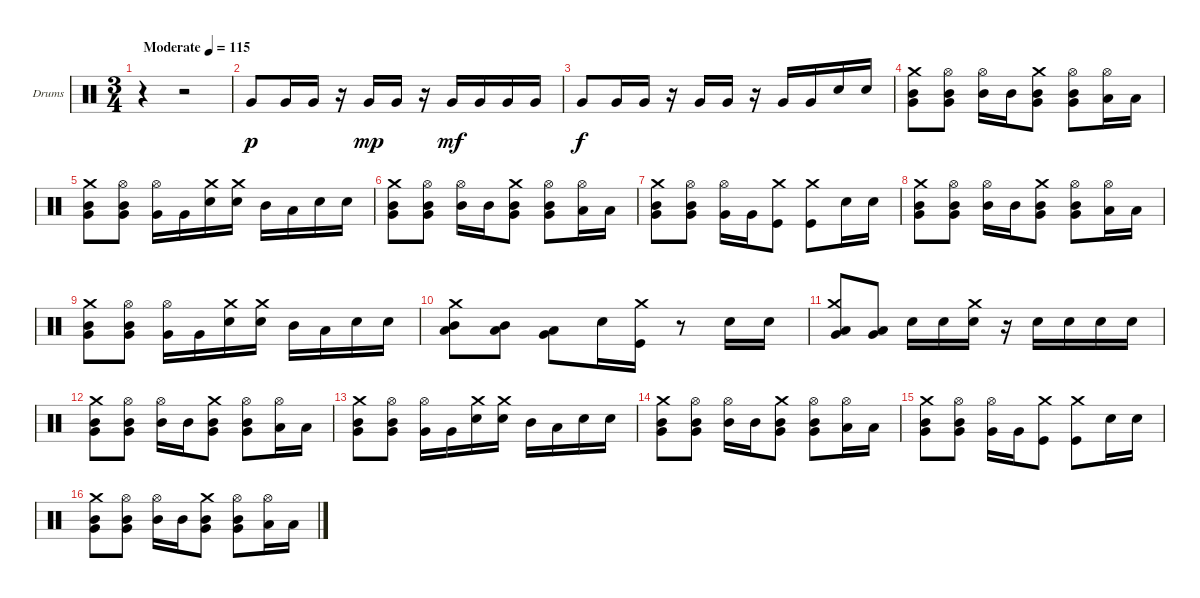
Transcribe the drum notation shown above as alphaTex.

\bracketExtendMode groupsimilarinstruments
\firstSystemTrackNameOrientation horizontal
\otherSystemsTrackNameOrientation horizontal
\track ("Drumkit" "Drums") {instrument percussion}
\staff {score}
\articulation defaults
\ts (3 4)
\beaming (8 2 2 2)
\tempo (115 "Moderate")
\clef neutral
\ks c
r.4{dy p} r.2 |
"Very Low Tom (hit)".8 "Very Low Tom (hit)".16 "Very Low Tom (hit)".16 r.16 "Very Low Tom (hit)".16{dy mp} "Very Low Tom (hit)".16 r.16 "Very Low Tom (hit)".16{dy mf} "Very Low Tom (hit)".16 "Very Low Tom (hit)".16 "Very Low Tom (hit)".16 |
"Very Low Tom (hit)".8{dy f} "Very Low Tom (hit)".16 "Very Low Tom (hit)".16 r.16 "Very Low Tom (hit)".16 "Very Low Tom (hit)".16 r.16 "Very Low Tom (hit)".16 "Very Low Tom (hit)".16 "Snare (hit) 2".16 "Snare (hit) 2".16 |
("Crash medium (hit)" "Mid Tom (hit)" "Very Low Tom (hit)").8 ("Hi-Hat (open)" "Mid Tom (hit)" "Very Low Tom (hit)").8 ("Hi-Hat (open)" "Mid Tom (hit)").16 "Mid Tom (hit)".16 ("Crash medium (hit)" "Mid Tom (hit)" "Very Low Tom (hit)").8 ("Hi-Hat (open)" "Mid Tom (hit)" "Very Low Tom (hit)").8 ("Hi-Hat (open)" "Low Tom (hit)").16 "Low Tom (hit)".16 |
("Crash medium (hit)" "Mid Tom (hit)" "Very Low Tom (hit)").8 ("Hi-Hat (open)" "Mid Tom (hit)" "Very Low Tom (hit)").8 ("Hi-Hat (open)" "Very Low Tom (hit)").16 "Very Low Tom (hit)".16 ("Crash medium (hit)" "Snare (hit) 2").16 ("Crash medium (hit)" "Snare (hit) 2").16 "Mid Tom (hit)".16 "Low Tom (hit)".16 "Snare (hit) 2".16 "Snare (hit) 2".16 |
("Crash medium (hit)" "Mid Tom (hit)" "Very Low Tom (hit)").8 ("Hi-Hat (open)" "Mid Tom (hit)" "Very Low Tom (hit)").8 ("Hi-Hat (open)" "Mid Tom (hit)").16 "Mid Tom (hit)".16 ("Crash medium (hit)" "Mid Tom (hit)" "Very Low Tom (hit)").8 ("Hi-Hat (open)" "Mid Tom (hit)" "Very Low Tom (hit)").8 ("Hi-Hat (open)" "Low Tom (hit)").16 "Low Tom (hit)".16 |
("Crash medium (hit)" "Mid Tom (hit)" "Very Low Tom (hit)").8 ("Hi-Hat (open)" "Mid Tom (hit)" "Very Low Tom (hit)").8 ("Hi-Hat (open)" "Very Low Tom (hit)").16 "Very Low Tom (hit)".16 ("Crash medium (hit)" "Kick (hit)").8 ("Crash medium (hit)" "Kick (hit)").8 "Snare (hit) 2".16 "Snare (hit) 2".16 |
("Crash medium (hit)" "Mid Tom (hit)" "Very Low Tom (hit)").8 ("Hi-Hat (open)" "Mid Tom (hit)" "Very Low Tom (hit)").8 ("Hi-Hat (open)" "Mid Tom (hit)").16 "Mid Tom (hit)".16 ("Crash medium (hit)" "Mid Tom (hit)" "Very Low Tom (hit)").8 ("Hi-Hat (open)" "Mid Tom (hit)" "Very Low Tom (hit)").8 ("Hi-Hat (open)" "Low Tom (hit)").16 "Low Tom (hit)".16 |
("Crash medium (hit)" "Mid Tom (hit)" "Very Low Tom (hit)").8 ("Hi-Hat (open)" "Mid Tom (hit)" "Very Low Tom (hit)").8 ("Hi-Hat (open)" "Very Low Tom (hit)").16 "Very Low Tom (hit)".16 ("Crash medium (hit)" "Snare (hit) 2").16 ("Crash medium (hit)" "Snare (hit) 2").16 "Mid Tom (hit)".16 "Low Tom (hit)".16 "Snare (hit) 2".16 "Snare (hit) 2".16 |
("Crash medium (hit)" "Mid Tom (hit)" "Low Tom (hit)").8 ("Mid Tom (hit)" "Low Tom (hit)").8 ("Low Tom (hit)" "Very Low Tom (hit)").8 "Snare (hit) 2".16 ("Crash medium (hit)" "Kick (hit)").16 r.8 "Snare (hit) 2".16 "Snare (hit) 2".16 |
("Crash medium (hit)" "Low Tom (hit)" "Very Low Tom (hit)").8 ("Low Tom (hit)" "Very Low Tom (hit)").8 "Snare (hit) 2".16 "Snare (hit) 2".16 ("Crash medium (hit)" "Snare (hit) 2").16 r.16 "Snare (hit) 2".16 "Snare (hit) 2".16 "Snare (hit) 2".16 "Snare (hit) 2".16 |
("Crash medium (hit)" "Mid Tom (hit)" "Very Low Tom (hit)").8 ("Hi-Hat (open)" "Mid Tom (hit)" "Very Low Tom (hit)").8 ("Hi-Hat (open)" "Mid Tom (hit)").16 "Mid Tom (hit)".16 ("Crash medium (hit)" "Mid Tom (hit)" "Very Low Tom (hit)").8 ("Hi-Hat (open)" "Mid Tom (hit)" "Very Low Tom (hit)").8 ("Hi-Hat (open)" "Low Tom (hit)").16 "Low Tom (hit)".16 |
("Crash medium (hit)" "Mid Tom (hit)" "Very Low Tom (hit)").8 ("Hi-Hat (open)" "Mid Tom (hit)" "Very Low Tom (hit)").8 ("Hi-Hat (open)" "Very Low Tom (hit)").16 "Very Low Tom (hit)".16 ("Crash medium (hit)" "Snare (hit) 2").16 ("Crash medium (hit)" "Snare (hit) 2").16 "Mid Tom (hit)".16 "Low Tom (hit)".16 "Snare (hit) 2".16 "Snare (hit) 2".16 |
("Crash medium (hit)" "Mid Tom (hit)" "Very Low Tom (hit)").8 ("Hi-Hat (open)" "Mid Tom (hit)" "Very Low Tom (hit)").8 ("Hi-Hat (open)" "Mid Tom (hit)").16 "Mid Tom (hit)".16 ("Crash medium (hit)" "Mid Tom (hit)" "Very Low Tom (hit)").8 ("Hi-Hat (open)" "Mid Tom (hit)" "Very Low Tom (hit)").8 ("Hi-Hat (open)" "Low Tom (hit)").16 "Low Tom (hit)".16 |
("Crash medium (hit)" "Mid Tom (hit)" "Very Low Tom (hit)").8 ("Hi-Hat (open)" "Mid Tom (hit)" "Very Low Tom (hit)").8 ("Hi-Hat (open)" "Very Low Tom (hit)").16 "Very Low Tom (hit)".16 ("Crash medium (hit)" "Kick (hit)").8 ("Crash medium (hit)" "Kick (hit)").8 "Snare (hit) 2".16 "Snare (hit) 2".16 |
("Crash medium (hit)" "Mid Tom (hit)" "Very Low Tom (hit)").8 ("Hi-Hat (open)" "Mid Tom (hit)" "Very Low Tom (hit)").8 ("Hi-Hat (open)" "Mid Tom (hit)").16 "Mid Tom (hit)".16 ("Crash medium (hit)" "Mid Tom (hit)" "Very Low Tom (hit)").8 ("Hi-Hat (open)" "Mid Tom (hit)" "Very Low Tom (hit)").8 ("Hi-Hat (open)" "Low Tom (hit)").16 "Low Tom (hit)".16
